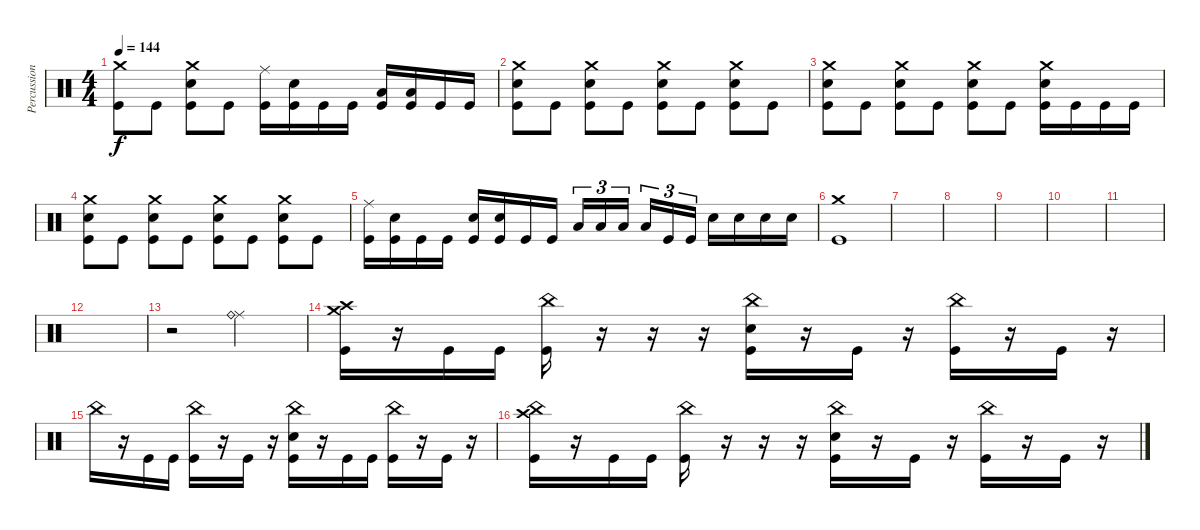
\track ("Percussion" "Percussion") {instrument percussion}
\staff {score}
\articulation defaults
\ts (4 4)
\tempo 144
\clef neutral
\ks c
("Crash medium (hit)" "Kick (hit)").8{dy f} "Kick (hit)".8 ("Crash medium (hit)" "Electric Snare (hit)" "Kick (hit)").8 "Kick (hit)".8 ("Ride (middle)" "Kick (hit)").16 ("Electric Snare (hit)" "Kick (hit)").16 "Kick (hit)".16 "Kick (hit)".16 ("Low Tom (hit)" "Kick (hit)").16 ("Low Tom (hit)" "Kick (hit)").16 "Kick (hit)".16 "Kick (hit)".16 |
("Crash medium (hit)" "Electric Snare (hit)" "Kick (hit)").8 "Kick (hit)".8 ("Crash medium (hit)" "Electric Snare (hit)" "Kick (hit)").8 "Kick (hit)".8 ("Crash medium (hit)" "Electric Snare (hit)" "Kick (hit)").8 "Kick (hit)".8 ("Crash medium (hit)" "Electric Snare (hit)" "Kick (hit)").8 "Kick (hit)".8 |
("Crash medium (hit)" "Electric Snare (hit)" "Kick (hit)").8 "Kick (hit)".8 ("Crash medium (hit)" "Electric Snare (hit)" "Kick (hit)").8 "Kick (hit)".8 ("Crash medium (hit)" "Electric Snare (hit)" "Kick (hit)").8 "Kick (hit)".8 ("Crash medium (hit)" "Electric Snare (hit)" "Kick (hit)").16 "Kick (hit)".16 "Kick (hit)".16 "Kick (hit)".16 |
("Crash medium (hit)" "Electric Snare (hit)" "Kick (hit)").8 "Kick (hit)".8 ("Crash medium (hit)" "Electric Snare (hit)" "Kick (hit)").8 "Kick (hit)".8 ("Crash medium (hit)" "Electric Snare (hit)" "Kick (hit)").8 "Kick (hit)".8 ("Crash medium (hit)" "Electric Snare (hit)" "Kick (hit)").8 "Kick (hit)".8 |
("Ride (middle)" "Kick (hit)").16 ("Electric Snare (hit)" "Kick (hit)").16 "Kick (hit)".16 "Kick (hit)".16 ("Electric Snare (hit)" "Kick (hit)").16 ("Electric Snare (hit)" "Kick (hit)").16 "Kick (hit)".16 "Kick (hit)".16 "Low Tom (hit)".16{tu (3 2)} "Low Tom (hit)".16{tu (3 2)} "Low Floor Tom (hit)".16{tu (3 2) beam splitsecondary} "Low Floor Tom (hit)".16{tu (3 2)} "Kick (hit)".16{tu (3 2)} "Kick (hit)".16{tu (3 2)} "Electric Snare (hit)".16 "Electric Snare (hit)".16 "Electric Snare (hit)".16 "Electric Snare (hit)".16 |
("Crash medium (hit)" "Kick (hit)").1 |
|
|
|
|
|
|
r.2 ("Ride (middle)" "Ride (bell)").2 |
("Crash high (hit)" "Crash medium (hit)" "Kick (hit)").16 r.16 "Kick (hit)".16 "Kick (hit)".16 ("China (hit)" "Kick (hit)").16 r.16 r.16 r.16 ("China (hit)" "Electric Snare (hit)" "Kick (hit)").16 r.16 "Kick (hit)".16 r.16 ("China (hit)" "Kick (hit)").16 r.16 "Kick (hit)".16 r.16 |
"China (hit)".16 r.16 "Kick (hit)".16 "Kick (hit)".16 ("China (hit)" "Kick (hit)").16 r.16 "Kick (hit)".16 r.16 ("China (hit)" "Electric Snare (hit)" "Kick (hit)").16 r.16 "Kick (hit)".16 "Kick (hit)".16 ("China (hit)" "Kick (hit)").16 r.16 "Kick (hit)".16 r.16 |
("Crash high (hit)" "China (hit)" "Kick (hit)").16 r.16 "Kick (hit)".16 "Kick (hit)".16 ("China (hit)" "Kick (hit)").16 r.16 r.16 r.16 ("China (hit)" "Electric Snare (hit)" "Kick (hit)").16 r.16 "Kick (hit)".16 r.16 ("China (hit)" "Kick (hit)").16 r.16 "Kick (hit)".16 r.16
